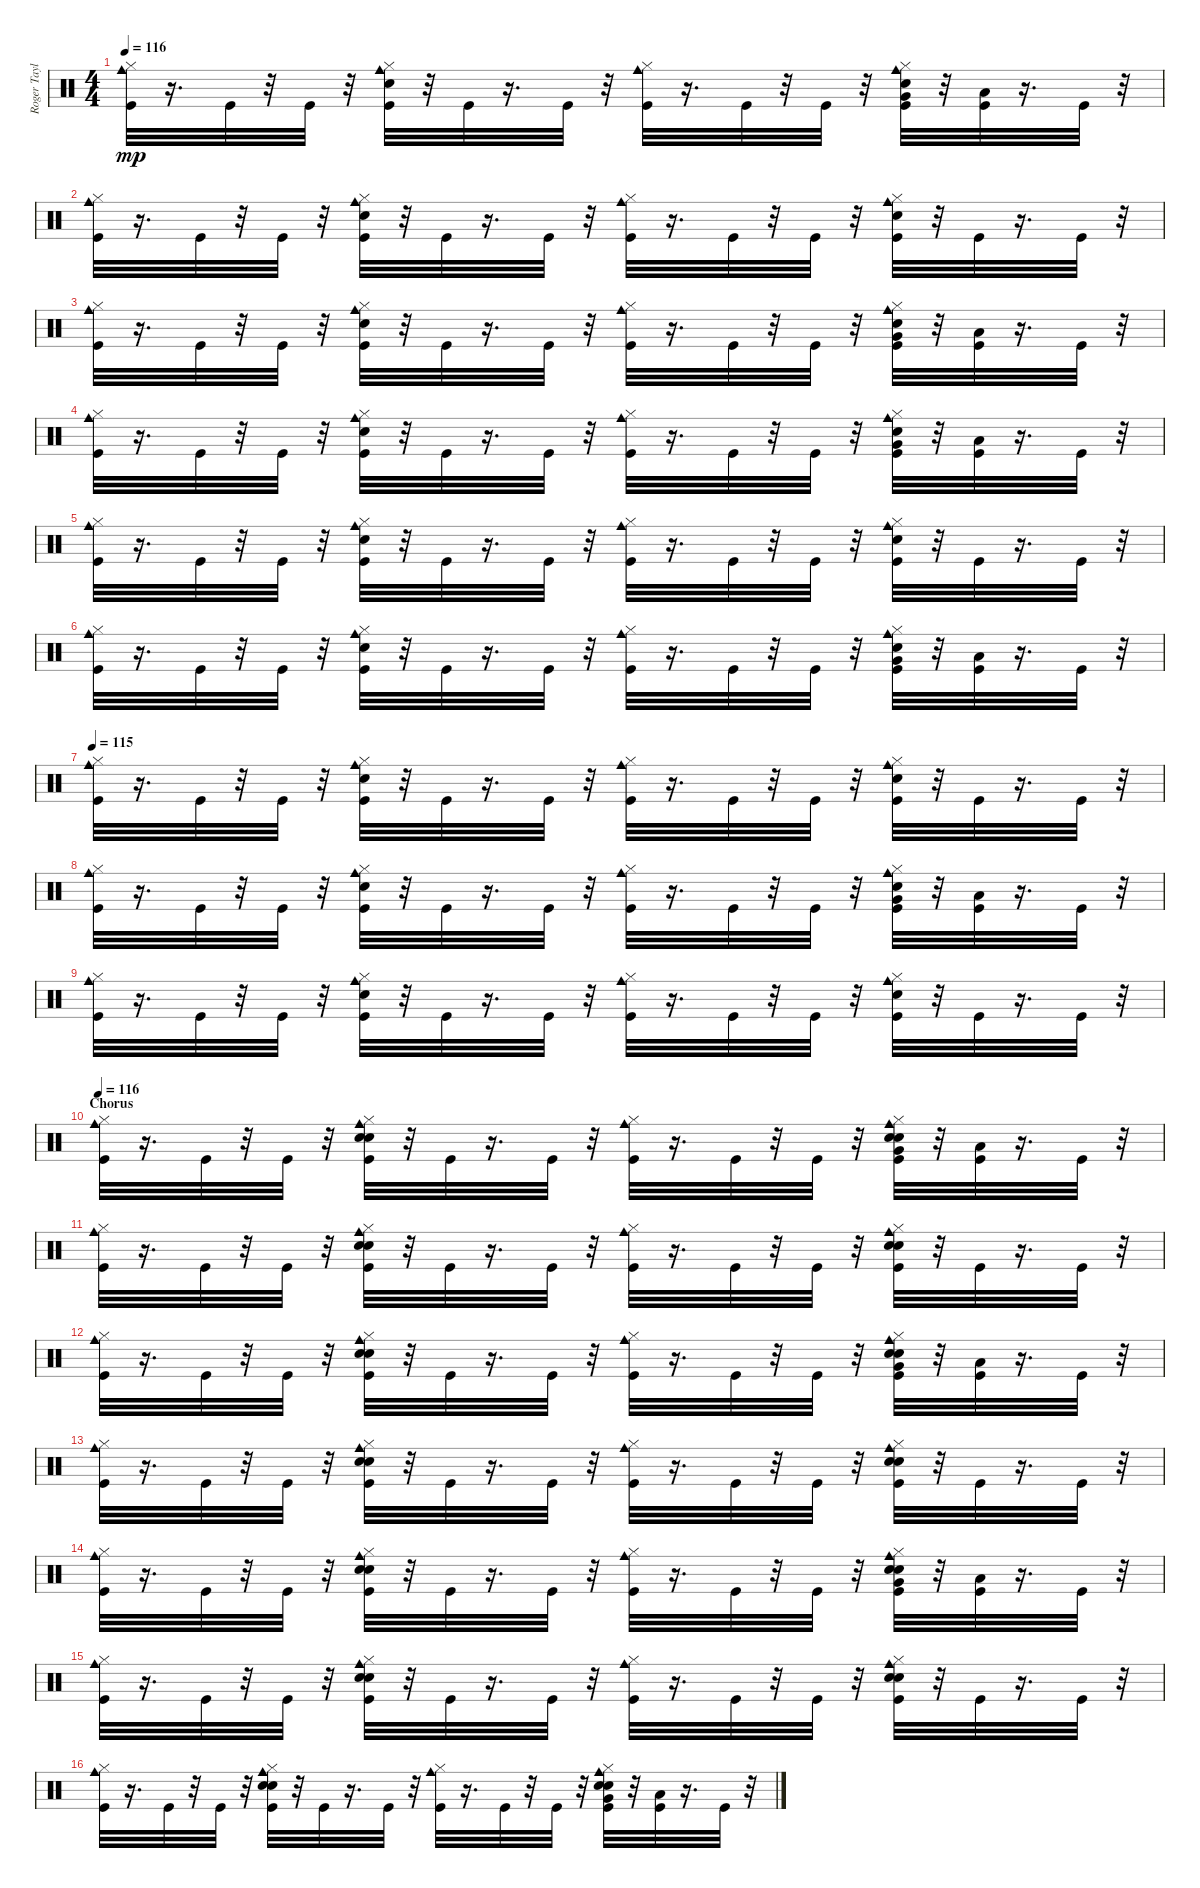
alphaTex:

\track ("Roger Taylor" "Roger Tayl") {instrument percussion}
\staff {score}
\articulation defaults
\ts (4 4)
\tempo 116
\clef neutral
\ks c
("Cowbell medium (hit)" "Hi-Hat (closed)" "Kick (hit)").32{dy mp} r.16{d} "Kick (hit)".32 r.32 "Kick (hit)".32 r.32 ("Snare (hit)" "Cowbell medium (hit)" "Hi-Hat (closed)" "Kick (hit)").32 r.32 "Kick (hit)".32 r.16{d} "Kick (hit)".32 r.32 ("Cowbell medium (hit)" "Hi-Hat (closed)" "Kick (hit)").32 r.16{d} "Kick (hit)".32 r.32 "Kick (hit)".32 r.32 ("Very Low Tom (hit)" "Hand Clap (hit)" "Cowbell medium (hit)" "Hi-Hat (closed)" "Kick (hit)").32 r.32 ("Low Floor Tom (hit)" "Kick (hit)").32 r.16{d} "Kick (hit)".32 r.32 |
("Cowbell medium (hit)" "Hi-Hat (closed)" "Kick (hit)").32 r.16{d} "Kick (hit)".32 r.32 "Kick (hit)".32 r.32 ("Snare (hit)" "Cowbell medium (hit)" "Hi-Hat (closed)" "Kick (hit)").32 r.32 "Kick (hit)".32 r.16{d} "Kick (hit)".32 r.32 ("Cowbell medium (hit)" "Hi-Hat (closed)" "Kick (hit)").32 r.16{d} "Kick (hit)".32 r.32 "Kick (hit)".32 r.32 ("Snare (hit)" "Cowbell medium (hit)" "Hi-Hat (closed)" "Kick (hit)").32 r.32 "Kick (hit)".32 r.16{d} "Kick (hit)".32 r.32 |
("Cowbell medium (hit)" "Hi-Hat (closed)" "Kick (hit)").32 r.16{d} "Kick (hit)".32 r.32 "Kick (hit)".32 r.32 ("Snare (hit)" "Cowbell medium (hit)" "Hi-Hat (closed)" "Kick (hit)").32 r.32 "Kick (hit)".32 r.16{d} "Kick (hit)".32 r.32 ("Cowbell medium (hit)" "Hi-Hat (closed)" "Kick (hit)").32 r.16{d} "Kick (hit)".32 r.32 "Kick (hit)".32 r.32 ("Very Low Tom (hit)" "Snare (hit)" "Cowbell medium (hit)" "Hi-Hat (closed)" "Kick (hit)").32 r.32 ("Low Floor Tom (hit)" "Kick (hit)").32 r.16{d} "Kick (hit)".32 r.32 |
("Cowbell medium (hit)" "Hi-Hat (closed)" "Kick (hit)").32 r.16{d} "Kick (hit)".32 r.32 "Kick (hit)".32 r.32 ("Snare (hit)" "Cowbell medium (hit)" "Hi-Hat (closed)" "Kick (hit)").32 r.32 "Kick (hit)".32 r.16{d} "Kick (hit)".32 r.32 ("Cowbell medium (hit)" "Hi-Hat (closed)" "Kick (hit)").32 r.16{d} "Kick (hit)".32 r.32 "Kick (hit)".32 r.32 ("Very Low Tom (hit)" "Snare (hit)" "Cowbell medium (hit)" "Hi-Hat (closed)" "Kick (hit)").32 r.32 ("Low Floor Tom (hit)" "Kick (hit)").32 r.16{d} "Kick (hit)".32 r.32 |
("Cowbell medium (hit)" "Hi-Hat (closed)" "Kick (hit)").32 r.16{d} "Kick (hit)".32 r.32 "Kick (hit)".32 r.32 ("Snare (hit)" "Cowbell medium (hit)" "Hi-Hat (closed)" "Kick (hit)").32 r.32 "Kick (hit)".32 r.16{d} "Kick (hit)".32 r.32 ("Cowbell medium (hit)" "Hi-Hat (closed)" "Kick (hit)").32 r.16{d} "Kick (hit)".32 r.32 "Kick (hit)".32 r.32 ("Snare (hit)" "Cowbell medium (hit)" "Hi-Hat (closed)" "Kick (hit)").32 r.32 "Kick (hit)".32 r.16{d} "Kick (hit)".32 r.32 |
("Cowbell medium (hit)" "Hi-Hat (closed)" "Kick (hit)").32 r.16{d} "Kick (hit)".32 r.32 "Kick (hit)".32 r.32 ("Snare (hit)" "Cowbell medium (hit)" "Hi-Hat (closed)" "Kick (hit)").32 r.32 "Kick (hit)".32 r.16{d} "Kick (hit)".32 r.32 ("Cowbell medium (hit)" "Hi-Hat (closed)" "Kick (hit)").32 r.16{d} "Kick (hit)".32 r.32 "Kick (hit)".32 r.32 ("Very Low Tom (hit)" "Snare (hit)" "Cowbell medium (hit)" "Hi-Hat (closed)" "Kick (hit)").32 r.32 ("Low Floor Tom (hit)" "Kick (hit)").32 r.16{d} "Kick (hit)".32 r.32 |
\tempo 115
("Cowbell medium (hit)" "Hi-Hat (closed)" "Kick (hit)").32 r.16{d} "Kick (hit)".32 r.32 "Kick (hit)".32 r.32 ("Snare (hit)" "Cowbell medium (hit)" "Hi-Hat (closed)" "Kick (hit)").32 r.32 "Kick (hit)".32 r.16{d} "Kick (hit)".32 r.32 ("Cowbell medium (hit)" "Hi-Hat (closed)" "Kick (hit)").32 r.16{d} "Kick (hit)".32 r.32 "Kick (hit)".32 r.32 ("Snare (hit)" "Cowbell medium (hit)" "Hi-Hat (closed)" "Kick (hit)").32 r.32 "Kick (hit)".32 r.16{d} "Kick (hit)".32 r.32 |
("Cowbell medium (hit)" "Hi-Hat (closed)" "Kick (hit)").32 r.16{d} "Kick (hit)".32 r.32 "Kick (hit)".32 r.32 ("Snare (hit)" "Cowbell medium (hit)" "Hi-Hat (closed)" "Kick (hit)").32 r.32 "Kick (hit)".32 r.16{d} "Kick (hit)".32 r.32 ("Cowbell medium (hit)" "Hi-Hat (closed)" "Kick (hit)").32 r.16{d} "Kick (hit)".32 r.32 "Kick (hit)".32 r.32 ("Very Low Tom (hit)" "Snare (hit)" "Cowbell medium (hit)" "Hi-Hat (closed)" "Kick (hit)").32 r.32 ("Low Floor Tom (hit)" "Kick (hit)").32 r.16{d} "Kick (hit)".32 r.32 |
("Cowbell medium (hit)" "Hi-Hat (closed)" "Kick (hit)").32 r.16{d} "Kick (hit)".32 r.32 "Kick (hit)".32 r.32 ("Snare (hit)" "Cowbell medium (hit)" "Hi-Hat (closed)" "Kick (hit)").32 r.32 "Kick (hit)".32 r.16{d} "Kick (hit)".32 r.32 ("Cowbell medium (hit)" "Hi-Hat (closed)" "Kick (hit)").32 r.16{d} "Kick (hit)".32 r.32 "Kick (hit)".32 r.32 ("Snare (hit)" "Cowbell medium (hit)" "Hi-Hat (closed)" "Kick (hit)").32 r.32 "Kick (hit)".32 r.16{d} "Kick (hit)".32 r.32 |
\section ("" "Chorus")
\tempo 116
("Cowbell medium (hit)" "Hi-Hat (closed)" "Kick (hit)").32 r.16{d} "Kick (hit)".32 r.32 "Kick (hit)".32 r.32 ("Hand Clap (hit)" "Snare (hit)" "Cowbell medium (hit)" "Hi-Hat (closed)" "Kick (hit)").32 r.32 "Kick (hit)".32 r.16{d} "Kick (hit)".32 r.32 ("Cowbell medium (hit)" "Hi-Hat (closed)" "Kick (hit)").32 r.16{d} "Kick (hit)".32 r.32 "Kick (hit)".32 r.32 ("Hand Clap (hit)" "Very Low Tom (hit)" "Snare (hit)" "Cowbell medium (hit)" "Hi-Hat (closed)" "Kick (hit)").32 r.32 ("Low Floor Tom (hit)" "Kick (hit)").32 r.16{d} "Kick (hit)".32 r.32 |
("Cowbell medium (hit)" "Hi-Hat (closed)" "Kick (hit)").32 r.16{d} "Kick (hit)".32 r.32 "Kick (hit)".32 r.32 ("Hand Clap (hit)" "Snare (hit)" "Cowbell medium (hit)" "Hi-Hat (closed)" "Kick (hit)").32 r.32 "Kick (hit)".32 r.16{d} "Kick (hit)".32 r.32 ("Cowbell medium (hit)" "Hi-Hat (closed)" "Kick (hit)").32 r.16{d} "Kick (hit)".32 r.32 "Kick (hit)".32 r.32 ("Hand Clap (hit)" "Snare (hit)" "Cowbell medium (hit)" "Hi-Hat (closed)" "Kick (hit)").32 r.32 "Kick (hit)".32 r.16{d} "Kick (hit)".32 r.32 |
("Cowbell medium (hit)" "Hi-Hat (closed)" "Kick (hit)").32 r.16{d} "Kick (hit)".32 r.32 "Kick (hit)".32 r.32 ("Hand Clap (hit)" "Snare (hit)" "Cowbell medium (hit)" "Hi-Hat (closed)" "Kick (hit)").32 r.32 "Kick (hit)".32 r.16{d} "Kick (hit)".32 r.32 ("Cowbell medium (hit)" "Hi-Hat (closed)" "Kick (hit)").32 r.16{d} "Kick (hit)".32 r.32 "Kick (hit)".32 r.32 ("Hand Clap (hit)" "Very Low Tom (hit)" "Snare (hit)" "Cowbell medium (hit)" "Hi-Hat (closed)" "Kick (hit)").32 r.32 ("Low Floor Tom (hit)" "Kick (hit)").32 r.16{d} "Kick (hit)".32 r.32 |
("Cowbell medium (hit)" "Hi-Hat (closed)" "Kick (hit)").32 r.16{d} "Kick (hit)".32 r.32 "Kick (hit)".32 r.32 ("Hand Clap (hit)" "Snare (hit)" "Cowbell medium (hit)" "Hi-Hat (closed)" "Kick (hit)").32 r.32 "Kick (hit)".32 r.16{d} "Kick (hit)".32 r.32 ("Cowbell medium (hit)" "Hi-Hat (closed)" "Kick (hit)").32 r.16{d} "Kick (hit)".32 r.32 "Kick (hit)".32 r.32 ("Hand Clap (hit)" "Snare (hit)" "Cowbell medium (hit)" "Hi-Hat (closed)" "Kick (hit)").32 r.32 "Kick (hit)".32 r.16{d} "Kick (hit)".32 r.32 |
("Cowbell medium (hit)" "Hi-Hat (closed)" "Kick (hit)").32 r.16{d} "Kick (hit)".32 r.32 "Kick (hit)".32 r.32 ("Hand Clap (hit)" "Snare (hit)" "Cowbell medium (hit)" "Hi-Hat (closed)" "Kick (hit)").32 r.32 "Kick (hit)".32 r.16{d} "Kick (hit)".32 r.32 ("Cowbell medium (hit)" "Hi-Hat (closed)" "Kick (hit)").32 r.16{d} "Kick (hit)".32 r.32 "Kick (hit)".32 r.32 ("Hand Clap (hit)" "Very Low Tom (hit)" "Snare (hit)" "Cowbell medium (hit)" "Hi-Hat (closed)" "Kick (hit)").32 r.32 ("Low Floor Tom (hit)" "Kick (hit)").32 r.16{d} "Kick (hit)".32 r.32 |
("Cowbell medium (hit)" "Hi-Hat (closed)" "Kick (hit)").32 r.16{d} "Kick (hit)".32 r.32 "Kick (hit)".32 r.32 ("Hand Clap (hit)" "Snare (hit)" "Cowbell medium (hit)" "Hi-Hat (closed)" "Kick (hit)").32 r.32 "Kick (hit)".32 r.16{d} "Kick (hit)".32 r.32 ("Cowbell medium (hit)" "Hi-Hat (closed)" "Kick (hit)").32 r.16{d} "Kick (hit)".32 r.32 "Kick (hit)".32 r.32 ("Hand Clap (hit)" "Snare (hit)" "Cowbell medium (hit)" "Hi-Hat (closed)" "Kick (hit)").32 r.32 "Kick (hit)".32 r.16{d} "Kick (hit)".32 r.32 |
("Cowbell medium (hit)" "Hi-Hat (closed)" "Kick (hit)").32 r.16{d} "Kick (hit)".32 r.32 "Kick (hit)".32 r.32 ("Hand Clap (hit)" "Snare (hit)" "Cowbell medium (hit)" "Hi-Hat (closed)" "Kick (hit)").32 r.32 "Kick (hit)".32 r.16{d} "Kick (hit)".32 r.32 ("Cowbell medium (hit)" "Hi-Hat (closed)" "Kick (hit)").32 r.16{d} "Kick (hit)".32 r.32 "Kick (hit)".32 r.32 ("Hand Clap (hit)" "Very Low Tom (hit)" "Snare (hit)" "Cowbell medium (hit)" "Hi-Hat (closed)" "Kick (hit)").32 r.32 ("Low Floor Tom (hit)" "Kick (hit)").32 r.16{d} "Kick (hit)".32 r.32
